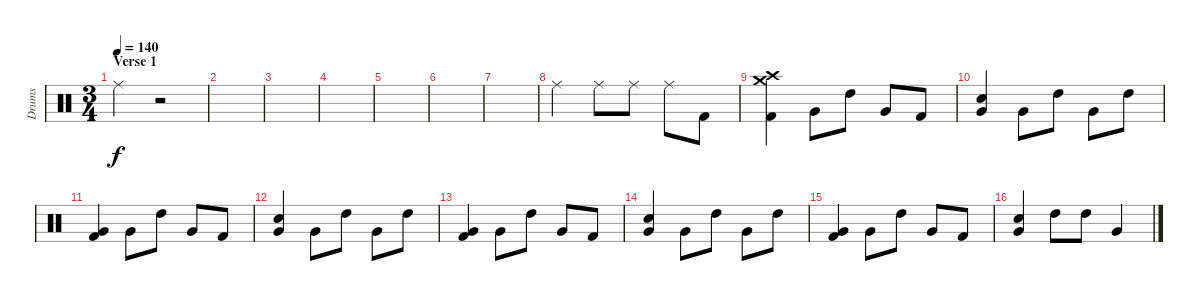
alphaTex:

\track ("Drums" "Drums") {instrument percussion}
\staff {score}
\articulation defaults
\ts (3 4)
\section ("" "Verse 1")
\tempo 140
\clef neutral
\ks c "Ride (middle)".4{dy f}
r.2 |
|
|
|
|
|
|
"Ride (middle)".4 "Ride (middle)".8 "Ride (middle)".8 "Ride (middle)".8 "Kick (hit) 2".8 |
("Kick (hit) 2" "Crash medium (hit)" "Crash high (hit)").4 "Very Low Tom (hit)".8 "High Tom (hit)".8 "Very Low Tom (hit)".8 "Kick (hit) 2".8 |
("Very Low Tom (hit)" "Electric Snare (hit)").4 "Very Low Tom (hit)".8 "High Tom (hit)".8 "Very Low Tom (hit)".8 "High Tom (hit)".8 |
("Kick (hit) 2" "Very Low Tom (hit)").4 "Very Low Tom (hit)".8 "High Tom (hit)".8 "Very Low Tom (hit)".8 "Kick (hit) 2".8 |
("Very Low Tom (hit)" "Electric Snare (hit)").4 "Very Low Tom (hit)".8 "High Tom (hit)".8 "Very Low Tom (hit)".8 "High Tom (hit)".8 |
("Kick (hit) 2" "Very Low Tom (hit)").4 "Very Low Tom (hit)".8 "High Tom (hit)".8 "Very Low Tom (hit)".8 "Kick (hit) 2".8 |
("Very Low Tom (hit)" "Electric Snare (hit)").4 "Very Low Tom (hit)".8 "High Tom (hit)".8 "Very Low Tom (hit)".8 "High Tom (hit)".8 |
("Kick (hit) 2" "Very Low Tom (hit)").4 "Very Low Tom (hit)".8 "High Tom (hit)".8 "Very Low Tom (hit)".8 "Kick (hit) 2".8 |
("Very Low Tom (hit)" "Electric Snare (hit)").4 "High Tom (hit)".8 "High Tom (hit)".8 "Very Low Tom (hit)".4
